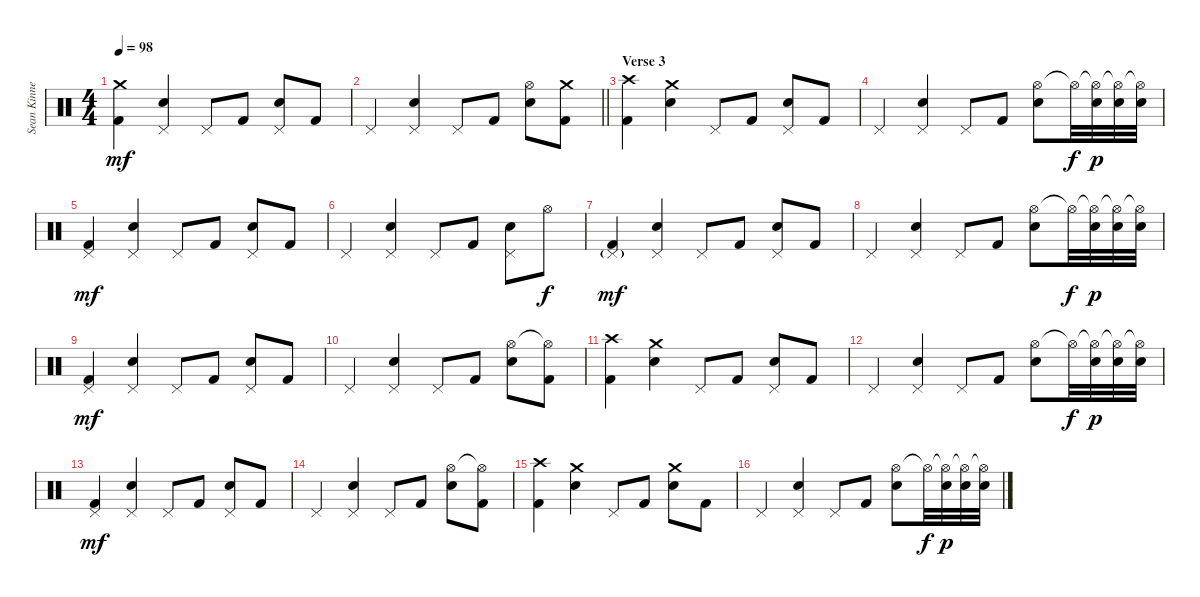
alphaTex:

\track ("Sean Kinney" "Sean Kinne") {instrument percussion}
\staff {score}
\articulation defaults
\ts (4 4)
\tempo 98
\clef neutral
\ks c
("Crash medium (hit)" "Kick (hit) 2").4{dy mf} ("Pedal Hi-Hat (hit)" "Snare (hit) 2").4 "Pedal Hi-Hat (hit)".8 "Kick (hit) 2".8 ("Pedal Hi-Hat (hit)" "Snare (hit) 2").8 "Kick (hit) 2".8 |
\barLineRight lightlight "Pedal Hi-Hat (hit)".4
("Pedal Hi-Hat (hit)" "Snare (hit) 2").4 "Pedal Hi-Hat (hit)".8 "Kick (hit) 2".8 ("Hi-Hat (open)" "Snare (hit) 2").8 ("Crash medium (hit)" "Kick (hit) 2").8 |
\section ("" "Verse 3")
("Crash high (hit)" "Kick (hit) 2").4 ("Crash medium (hit)" "Snare (hit) 2").4 "Pedal Hi-Hat (hit)".8 "Kick (hit) 2".8 ("Pedal Hi-Hat (hit)" "Snare (hit) 2").8 "Kick (hit) 2".8 |
"Pedal Hi-Hat (hit)".4 ("Pedal Hi-Hat (hit)" "Snare (hit) 2").4 "Pedal Hi-Hat (hit)".8 "Kick (hit) 2".8 ("Hi-Hat (open)" "Snare (hit) 2").8 "Hi-Hat (open)"{t}.32{dy f} ("Hi-Hat (open)"{t} "Snare (hit) 2").32{dy p} ("Hi-Hat (open)"{t} "Snare (hit) 2").32 ("Hi-Hat (open)"{t} "Snare (hit) 2").32 |
("Pedal Hi-Hat (hit)" "Kick (hit) 2").4{dy mf} ("Pedal Hi-Hat (hit)" "Snare (hit) 2").4 "Pedal Hi-Hat (hit)".8 "Kick (hit) 2".8 ("Pedal Hi-Hat (hit)" "Snare (hit) 2").8 "Kick (hit) 2".8 |
"Pedal Hi-Hat (hit)".4 ("Pedal Hi-Hat (hit)" "Snare (hit) 2").4 "Pedal Hi-Hat (hit)".8 "Kick (hit) 2".8 ("Pedal Hi-Hat (hit)" "Snare (hit) 2").8 "Hi-Hat (open)".8{dy f} |
("Pedal Hi-Hat (hit)"{g} "Kick (hit) 2").4{dy mf} ("Pedal Hi-Hat (hit)" "Snare (hit) 2").4 "Pedal Hi-Hat (hit)".8 "Kick (hit) 2".8 ("Pedal Hi-Hat (hit)" "Snare (hit) 2").8 "Kick (hit) 2".8 |
"Pedal Hi-Hat (hit)".4 ("Pedal Hi-Hat (hit)" "Snare (hit) 2").4 "Pedal Hi-Hat (hit)".8 "Kick (hit) 2".8 ("Hi-Hat (open)" "Snare (hit) 2").8 "Hi-Hat (open)"{t}.32{dy f} ("Hi-Hat (open)"{t} "Snare (hit) 2").32{dy p} ("Hi-Hat (open)"{t} "Snare (hit) 2").32 ("Hi-Hat (open)"{t} "Snare (hit) 2").32 |
("Pedal Hi-Hat (hit)" "Kick (hit) 2").4{dy mf} ("Pedal Hi-Hat (hit)" "Snare (hit) 2").4 "Pedal Hi-Hat (hit)".8 "Kick (hit) 2".8 ("Pedal Hi-Hat (hit)" "Snare (hit) 2").8 "Kick (hit) 2".8 |
"Pedal Hi-Hat (hit)".4 ("Pedal Hi-Hat (hit)" "Snare (hit) 2").4 "Pedal Hi-Hat (hit)".8 "Kick (hit) 2".8 ("Hi-Hat (open)" "Snare (hit) 2").8 ("Hi-Hat (open)"{t} "Kick (hit) 2").8 |
("Crash high (hit)" "Kick (hit) 2").4 ("Crash medium (hit)" "Snare (hit) 2").4 "Pedal Hi-Hat (hit)".8 "Kick (hit) 2".8 ("Pedal Hi-Hat (hit)" "Snare (hit) 2").8 "Kick (hit) 2".8 |
"Pedal Hi-Hat (hit)".4 ("Pedal Hi-Hat (hit)" "Snare (hit) 2").4 "Pedal Hi-Hat (hit)".8 "Kick (hit) 2".8 ("Hi-Hat (open)" "Snare (hit) 2").8 "Hi-Hat (open)"{t}.32{dy f} ("Hi-Hat (open)"{t} "Snare (hit) 2").32{dy p} ("Hi-Hat (open)"{t} "Snare (hit) 2").32 ("Hi-Hat (open)"{t} "Snare (hit) 2").32 |
("Pedal Hi-Hat (hit)" "Kick (hit) 2").4{dy mf} ("Pedal Hi-Hat (hit)" "Snare (hit) 2").4 "Pedal Hi-Hat (hit)".8 "Kick (hit) 2".8 ("Pedal Hi-Hat (hit)" "Snare (hit) 2").8 "Kick (hit) 2".8 |
"Pedal Hi-Hat (hit)".4 ("Pedal Hi-Hat (hit)" "Snare (hit) 2").4 "Pedal Hi-Hat (hit)".8 "Kick (hit) 2".8 ("Hi-Hat (open)" "Snare (hit) 2").8 ("Hi-Hat (open)"{t} "Kick (hit) 2").8 |
("Crash high (hit)" "Kick (hit) 2").4 ("Crash medium (hit)" "Snare (hit) 2").4 "Pedal Hi-Hat (hit)".8 "Kick (hit) 2".8 ("Crash medium (hit)" "Snare (hit) 2").8 "Kick (hit) 2".8 |
"Pedal Hi-Hat (hit)".4 ("Pedal Hi-Hat (hit)" "Snare (hit) 2").4 "Pedal Hi-Hat (hit)".8 "Kick (hit) 2".8 ("Hi-Hat (open)" "Snare (hit) 2").8 "Hi-Hat (open)"{t}.32{dy f} ("Hi-Hat (open)"{t} "Snare (hit) 2").32{dy p} ("Hi-Hat (open)"{t} "Snare (hit) 2").32 ("Hi-Hat (open)"{t} "Snare (hit) 2").32
